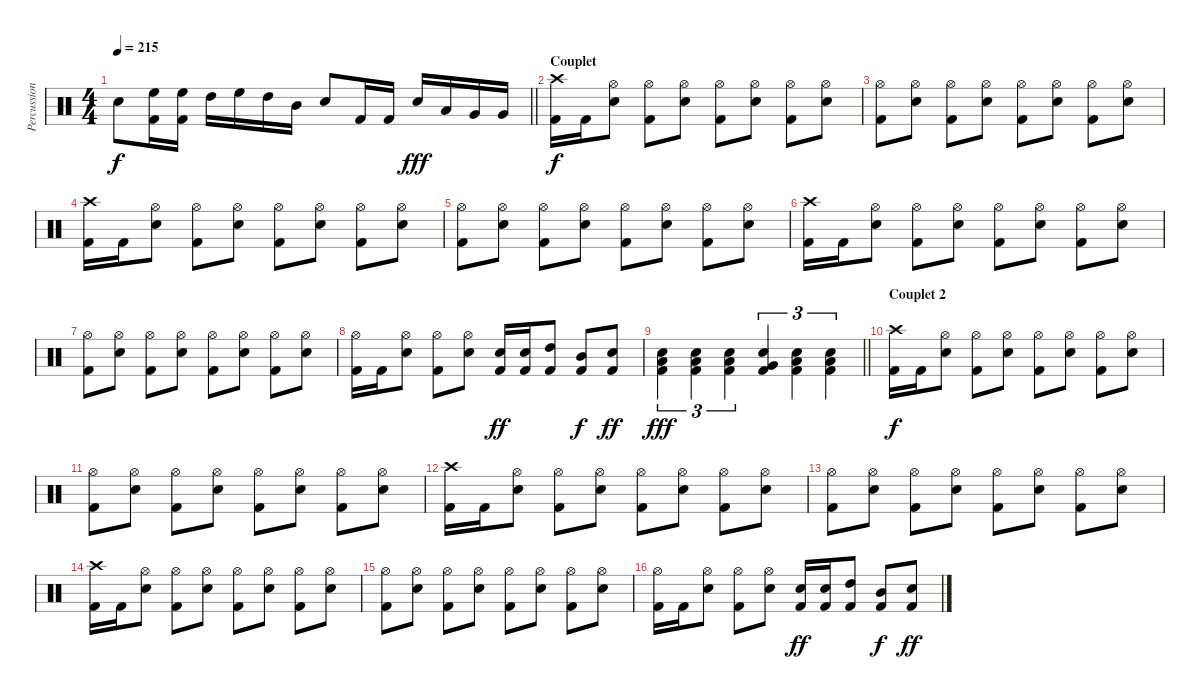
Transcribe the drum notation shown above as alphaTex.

\track ("Percussions" "Percussion") {instrument percussion}
\staff {score}
\articulation defaults
\ts (4 4)
\tempo 215
\clef neutral
\barLineRight lightlight
\ks c "Electric Snare (hit)".8{dy f}
("High Floor Tom (hit)" "Kick (hit) 2").16 ("High Floor Tom (hit)" "Kick (hit) 2").16 "High Tom (hit)".16 "High Floor Tom (hit)".16 "High Tom (hit)".16 "Mid Tom (hit)".16 "Electric Snare (hit)".8 "Kick (hit) 2".16 "Kick (hit) 2".16 "Electric Snare (hit)".16{dy fff} "Low Tom (hit)".16 "Very Low Tom (hit)".16 "Very Low Tom (hit)".16 |
\section ("" "Couplet")
("Crash high (hit)" "Kick (hit) 2").16{dy f} "Kick (hit) 2".16 ("Hi-Hat (open)" "Electric Snare (hit)").8 ("Hi-Hat (open)" "Kick (hit) 2").8 ("Hi-Hat (open)" "Electric Snare (hit)").8 ("Hi-Hat (open)" "Kick (hit) 2").8 ("Hi-Hat (open)" "Electric Snare (hit)").8 ("Hi-Hat (open)" "Kick (hit) 2").8 ("Hi-Hat (open)" "Electric Snare (hit)").8 |
("Hi-Hat (open)" "Kick (hit) 2").8 ("Hi-Hat (open)" "Electric Snare (hit)").8 ("Hi-Hat (open)" "Kick (hit) 2").8 ("Hi-Hat (open)" "Electric Snare (hit)").8 ("Hi-Hat (open)" "Kick (hit) 2").8 ("Hi-Hat (open)" "Electric Snare (hit)").8 ("Hi-Hat (open)" "Kick (hit) 2").8 ("Hi-Hat (open)" "Electric Snare (hit)").8 |
("Crash high (hit)" "Kick (hit) 2").16 "Kick (hit) 2".16 ("Hi-Hat (open)" "Electric Snare (hit)").8 ("Hi-Hat (open)" "Kick (hit) 2").8 ("Hi-Hat (open)" "Electric Snare (hit)").8 ("Hi-Hat (open)" "Kick (hit) 2").8 ("Hi-Hat (open)" "Electric Snare (hit)").8 ("Hi-Hat (open)" "Kick (hit) 2").8 ("Hi-Hat (open)" "Electric Snare (hit)").8 |
("Hi-Hat (open)" "Kick (hit) 2").8 ("Hi-Hat (open)" "Electric Snare (hit)").8 ("Hi-Hat (open)" "Kick (hit) 2").8 ("Hi-Hat (open)" "Electric Snare (hit)").8 ("Hi-Hat (open)" "Kick (hit) 2").8 ("Hi-Hat (open)" "Electric Snare (hit)").8 ("Hi-Hat (open)" "Kick (hit) 2").8 ("Hi-Hat (open)" "Electric Snare (hit)").8 |
("Crash high (hit)" "Kick (hit) 2").16 "Kick (hit) 2".16 ("Hi-Hat (open)" "Electric Snare (hit)").8 ("Hi-Hat (open)" "Kick (hit) 2").8 ("Hi-Hat (open)" "Electric Snare (hit)").8 ("Hi-Hat (open)" "Kick (hit) 2").8 ("Hi-Hat (open)" "Electric Snare (hit)").8 ("Hi-Hat (open)" "Kick (hit) 2").8 ("Hi-Hat (open)" "Electric Snare (hit)").8 |
("Hi-Hat (open)" "Kick (hit) 2").8 ("Hi-Hat (open)" "Electric Snare (hit)").8 ("Hi-Hat (open)" "Kick (hit) 2").8 ("Hi-Hat (open)" "Electric Snare (hit)").8 ("Hi-Hat (open)" "Kick (hit) 2").8 ("Hi-Hat (open)" "Electric Snare (hit)").8 ("Hi-Hat (open)" "Kick (hit) 2").8 ("Hi-Hat (open)" "Electric Snare (hit)").8 |
("Hi-Hat (open)" "Kick (hit) 2").16 "Kick (hit) 2".16 ("Hi-Hat (open)" "Electric Snare (hit)").8 ("Hi-Hat (open)" "Kick (hit) 2").8 ("Hi-Hat (open)" "Electric Snare (hit)").8 ("Electric Snare (hit)" "Kick (hit) 2").16{dy ff} ("Electric Snare (hit)" "Kick (hit) 2").16 ("High Tom (hit)" "Kick (hit) 2").8 ("Mid Tom (hit)" "Kick (hit) 2").8{dy f} ("Electric Snare (hit)" "Kick (hit) 2").8{dy ff} |
\barLineRight lightlight
("Electric Snare (hit)" "Low Tom (hit)" "Kick (hit) 2").4{tu (3 2) dy fff} ("Electric Snare (hit)" "Low Tom (hit)" "Kick (hit) 2").4{tu (3 2)} ("Electric Snare (hit)" "Low Tom (hit)" "Kick (hit) 2").4{tu (3 2)} ("Electric Snare (hit)" "Very Low Tom (hit)" "Kick (hit) 2").4{tu (3 2)} ("Electric Snare (hit)" "Low Floor Tom (hit)" "Kick (hit) 2").4{tu (3 2)} ("Electric Snare (hit)" "Low Floor Tom (hit)" "Kick (hit) 2").4{tu (3 2)} |
\section ("" "Couplet 2")
("Crash high (hit)" "Kick (hit) 2").16{dy f} "Kick (hit) 2".16 ("Hi-Hat (open)" "Electric Snare (hit)").8 ("Hi-Hat (open)" "Kick (hit) 2").8 ("Hi-Hat (open)" "Electric Snare (hit)").8 ("Hi-Hat (open)" "Kick (hit) 2").8 ("Hi-Hat (open)" "Electric Snare (hit)").8 ("Hi-Hat (open)" "Kick (hit) 2").8 ("Hi-Hat (open)" "Electric Snare (hit)").8 |
("Hi-Hat (open)" "Kick (hit) 2").8 ("Hi-Hat (open)" "Electric Snare (hit)").8 ("Hi-Hat (open)" "Kick (hit) 2").8 ("Hi-Hat (open)" "Electric Snare (hit)").8 ("Hi-Hat (open)" "Kick (hit) 2").8 ("Hi-Hat (open)" "Electric Snare (hit)").8 ("Hi-Hat (open)" "Kick (hit) 2").8 ("Hi-Hat (open)" "Electric Snare (hit)").8 |
("Crash high (hit)" "Kick (hit) 2").16 "Kick (hit) 2".16 ("Hi-Hat (open)" "Electric Snare (hit)").8 ("Hi-Hat (open)" "Kick (hit) 2").8 ("Hi-Hat (open)" "Electric Snare (hit)").8 ("Hi-Hat (open)" "Kick (hit) 2").8 ("Hi-Hat (open)" "Electric Snare (hit)").8 ("Hi-Hat (open)" "Kick (hit) 2").8 ("Hi-Hat (open)" "Electric Snare (hit)").8 |
("Hi-Hat (open)" "Kick (hit) 2").8 ("Hi-Hat (open)" "Electric Snare (hit)").8 ("Hi-Hat (open)" "Kick (hit) 2").8 ("Hi-Hat (open)" "Electric Snare (hit)").8 ("Hi-Hat (open)" "Kick (hit) 2").8 ("Hi-Hat (open)" "Electric Snare (hit)").8 ("Hi-Hat (open)" "Kick (hit) 2").8 ("Hi-Hat (open)" "Electric Snare (hit)").8 |
("Crash high (hit)" "Kick (hit) 2").16 "Kick (hit) 2".16 ("Hi-Hat (open)" "Electric Snare (hit)").8 ("Hi-Hat (open)" "Kick (hit) 2").8 ("Hi-Hat (open)" "Electric Snare (hit)").8 ("Hi-Hat (open)" "Kick (hit) 2").8 ("Hi-Hat (open)" "Electric Snare (hit)").8 ("Hi-Hat (open)" "Kick (hit) 2").8 ("Hi-Hat (open)" "Electric Snare (hit)").8 |
("Hi-Hat (open)" "Kick (hit) 2").8 ("Hi-Hat (open)" "Electric Snare (hit)").8 ("Hi-Hat (open)" "Kick (hit) 2").8 ("Hi-Hat (open)" "Electric Snare (hit)").8 ("Hi-Hat (open)" "Kick (hit) 2").8 ("Hi-Hat (open)" "Electric Snare (hit)").8 ("Hi-Hat (open)" "Kick (hit) 2").8 ("Hi-Hat (open)" "Electric Snare (hit)").8 |
("Hi-Hat (open)" "Kick (hit) 2").16 "Kick (hit) 2".16 ("Hi-Hat (open)" "Electric Snare (hit)").8 ("Hi-Hat (open)" "Kick (hit) 2").8 ("Hi-Hat (open)" "Electric Snare (hit)").8 ("Electric Snare (hit)" "Kick (hit) 2").16{dy ff} ("Electric Snare (hit)" "Kick (hit) 2").16 ("High Tom (hit)" "Kick (hit) 2").8 ("Mid Tom (hit)" "Kick (hit) 2").8{dy f} ("Electric Snare (hit)" "Kick (hit) 2").8{dy ff}
